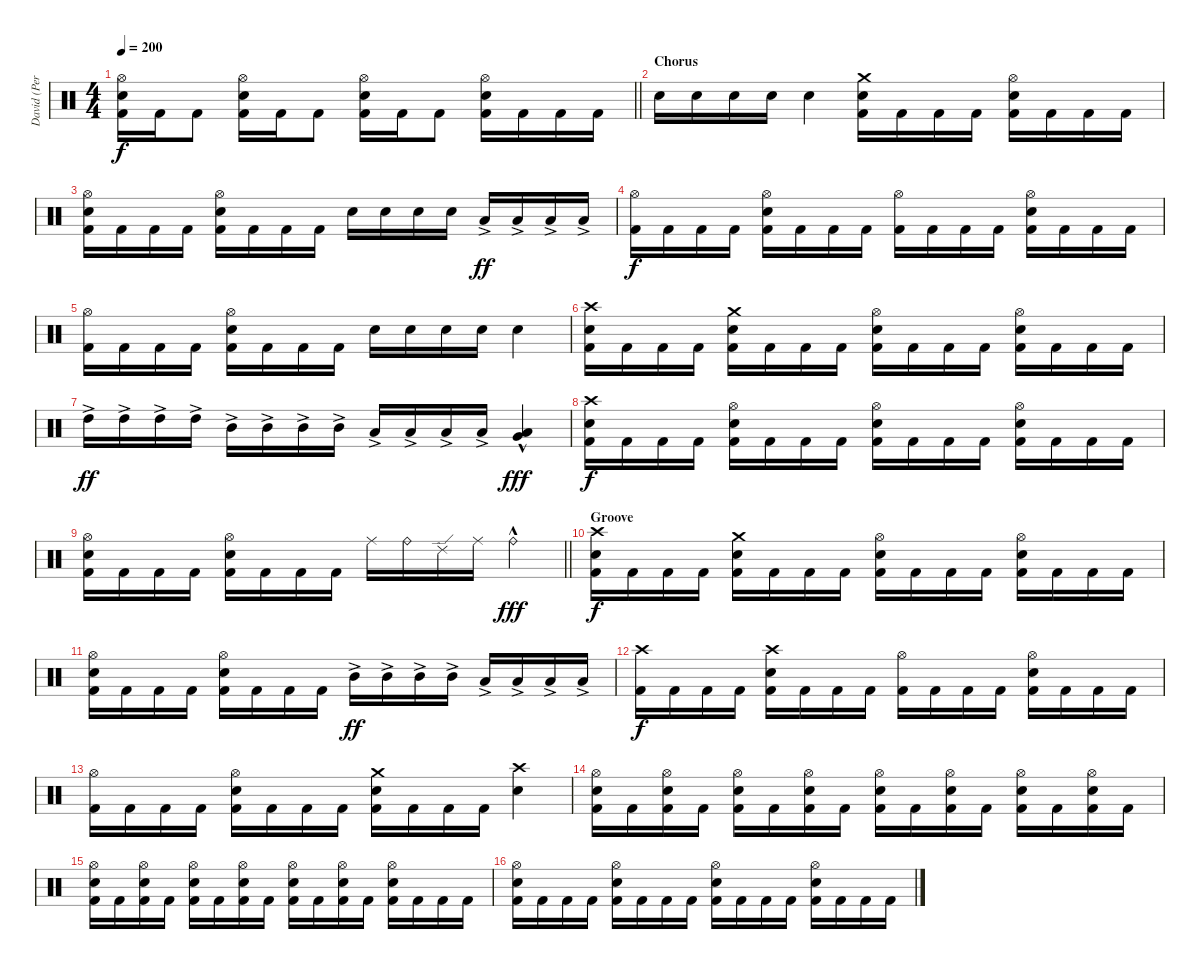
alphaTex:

\track ("David (Percussion)" "David (Per") {instrument percussion}
\staff {score}
\articulation defaults
\ts (4 4)
\tempo 200
\clef neutral
\barLineRight lightlight
\ks c
("Hi-Hat (open)" "Electric Snare (hit)" "Kick (hit) 2").16{dy f} "Kick (hit) 2".16 "Kick (hit) 2".8 ("Hi-Hat (open)" "Electric Snare (hit)" "Kick (hit) 2").16 "Kick (hit) 2".16 "Kick (hit) 2".8 ("Hi-Hat (open)" "Electric Snare (hit)" "Kick (hit) 2").16 "Kick (hit) 2".16 "Kick (hit) 2".8 ("Hi-Hat (open)" "Electric Snare (hit)" "Kick (hit) 2").16 "Kick (hit) 2".16 "Kick (hit) 2".16 "Kick (hit) 2".16 |
\section ("" "Chorus")
"Electric Snare (hit)".16 "Electric Snare (hit)".16 "Electric Snare (hit)".16 "Electric Snare (hit)".16 "Electric Snare (hit)".4 ("Crash medium (hit)" "Electric Snare (hit)" "Kick (hit) 2").16 "Kick (hit) 2".16 "Kick (hit) 2".16 "Kick (hit) 2".16 ("Hi-Hat (open)" "Electric Snare (hit)" "Kick (hit) 2").16 "Kick (hit) 2".16 "Kick (hit) 2".16 "Kick (hit) 2".16 |
("Hi-Hat (open)" "Electric Snare (hit)" "Kick (hit) 2").16 "Kick (hit) 2".16 "Kick (hit) 2".16 "Kick (hit) 2".16 ("Hi-Hat (open)" "Electric Snare (hit)" "Kick (hit) 2").16 "Kick (hit) 2".16 "Kick (hit) 2".16 "Kick (hit) 2".16 "Electric Snare (hit)".16 "Electric Snare (hit)".16 "Electric Snare (hit)".16 "Electric Snare (hit)".16 "Low Tom (hit)"{ac}.16{dy ff} "Low Tom (hit)"{ac}.16 "Low Tom (hit)"{ac}.16 "Low Tom (hit)"{ac}.16 |
("Hi-Hat (open)" "Kick (hit) 2").16{dy f} "Kick (hit) 2".16 "Kick (hit) 2".16 "Kick (hit) 2".16 ("Hi-Hat (open)" "Electric Snare (hit)" "Kick (hit) 2").16 "Kick (hit) 2".16 "Kick (hit) 2".16 "Kick (hit) 2".16 ("Hi-Hat (open)" "Kick (hit) 2").16 "Kick (hit) 2".16 "Kick (hit) 2".16 "Kick (hit) 2".16 ("Hi-Hat (open)" "Electric Snare (hit)" "Kick (hit) 2").16 "Kick (hit) 2".16 "Kick (hit) 2".16 "Kick (hit) 2".16 |
("Hi-Hat (open)" "Kick (hit) 2").16 "Kick (hit) 2".16 "Kick (hit) 2".16 "Kick (hit) 2".16 ("Hi-Hat (open)" "Electric Snare (hit)" "Kick (hit) 2").16 "Kick (hit) 2".16 "Kick (hit) 2".16 "Kick (hit) 2".16 "Electric Snare (hit)".16 "Electric Snare (hit)".16 "Electric Snare (hit)".16 "Electric Snare (hit)".16 "Electric Snare (hit)".4 |
("Crash high (hit)" "Electric Snare (hit)" "Kick (hit) 2").16 "Kick (hit) 2".16 "Kick (hit) 2".16 "Kick (hit) 2".16 ("Crash medium (hit)" "Electric Snare (hit)" "Kick (hit) 2").16 "Kick (hit) 2".16 "Kick (hit) 2".16 "Kick (hit) 2".16 ("Hi-Hat (open)" "Electric Snare (hit)" "Kick (hit) 2").16 "Kick (hit) 2".16 "Kick (hit) 2".16 "Kick (hit) 2".16 ("Hi-Hat (open)" "Electric Snare (hit)" "Kick (hit) 2").16 "Kick (hit) 2".16 "Kick (hit) 2".16 "Kick (hit) 2".16 |
"High Tom (hit)"{ac}.16{dy ff} "High Tom (hit)"{ac}.16 "High Tom (hit)"{ac}.16 "High Tom (hit)"{ac}.16 "Mid Tom (hit)"{ac}.16 "Mid Tom (hit)"{ac}.16 "Mid Tom (hit)"{ac}.16 "Mid Tom (hit)"{ac}.16 "Low Tom (hit)"{ac}.16 "Low Tom (hit)"{ac}.16 "Low Tom (hit)"{ac}.16 "Low Tom (hit)"{ac}.16 ("Very Low Tom (hit)" "Low Floor Tom (hit)"{hac}).4{dy fff} |
("Crash high (hit)" "Electric Snare (hit)" "Kick (hit) 2").16{dy f} "Kick (hit) 2".16 "Kick (hit) 2".16 "Kick (hit) 2".16 ("Hi-Hat (open)" "Electric Snare (hit)" "Kick (hit) 2").16 "Kick (hit) 2".16 "Kick (hit) 2".16 "Kick (hit) 2".16 ("Hi-Hat (open)" "Electric Snare (hit)" "Kick (hit) 2").16 "Kick (hit) 2".16 "Kick (hit) 2".16 "Kick (hit) 2".16 ("Hi-Hat (open)" "Electric Snare (hit)" "Kick (hit) 2").16 "Kick (hit) 2".16 "Kick (hit) 2".16 "Kick (hit) 2".16 |
\barLineRight lightlight
("Hi-Hat (open)" "Electric Snare (hit)" "Kick (hit) 2").16 "Kick (hit) 2".16 "Kick (hit) 2".16 "Kick (hit) 2".16 ("Hi-Hat (open)" "Electric Snare (hit)" "Kick (hit) 2").16 "Kick (hit) 2".16 "Kick (hit) 2".16 "Kick (hit) 2".16 "Ride (middle)".16 "Ride (bell)".16 "Ride (edge) 2".16 "Ride (middle)".16 "Ride (bell)"{hac}.4{dy fff} |
\section ("" "Groove")
("Crash high (hit)" "Electric Snare (hit)" "Kick (hit) 2").16{dy f} "Kick (hit) 2".16 "Kick (hit) 2".16 "Kick (hit) 2".16 ("Crash medium (hit)" "Electric Snare (hit)" "Kick (hit) 2").16 "Kick (hit) 2".16 "Kick (hit) 2".16 "Kick (hit) 2".16 ("Hi-Hat (open)" "Electric Snare (hit)" "Kick (hit) 2").16 "Kick (hit) 2".16 "Kick (hit) 2".16 "Kick (hit) 2".16 ("Hi-Hat (open)" "Electric Snare (hit)" "Kick (hit) 2").16 "Kick (hit) 2".16 "Kick (hit) 2".16 "Kick (hit) 2".16 |
("Hi-Hat (open)" "Electric Snare (hit)" "Kick (hit) 2").16 "Kick (hit) 2".16 "Kick (hit) 2".16 "Kick (hit) 2".16 ("Hi-Hat (open)" "Electric Snare (hit)" "Kick (hit) 2").16 "Kick (hit) 2".16 "Kick (hit) 2".16 "Kick (hit) 2".16 "Mid Tom (hit)"{ac}.16{dy ff} "Mid Tom (hit)"{ac}.16 "Mid Tom (hit)"{ac}.16 "Mid Tom (hit)"{ac}.16 "Low Tom (hit)"{ac}.16 "Low Tom (hit)"{ac}.16 "Low Tom (hit)"{ac}.16 "Low Tom (hit)"{ac}.16 |
("Crash high (hit)" "Kick (hit) 2").16{dy f} "Kick (hit) 2".16 "Kick (hit) 2".16 "Kick (hit) 2".16 ("Crash high (hit)" "Electric Snare (hit)" "Kick (hit) 2").16 "Kick (hit) 2".16 "Kick (hit) 2".16 "Kick (hit) 2".16 ("Hi-Hat (open)" "Kick (hit) 2").16 "Kick (hit) 2".16 "Kick (hit) 2".16 "Kick (hit) 2".16 ("Hi-Hat (open)" "Electric Snare (hit)" "Kick (hit) 2").16 "Kick (hit) 2".16 "Kick (hit) 2".16 "Kick (hit) 2".16 |
("Hi-Hat (open)" "Kick (hit) 2").16 "Kick (hit) 2".16 "Kick (hit) 2".16 "Kick (hit) 2".16 ("Hi-Hat (open)" "Electric Snare (hit)" "Kick (hit) 2").16 "Kick (hit) 2".16 "Kick (hit) 2".16 "Kick (hit) 2".16 ("Crash medium (hit)" "Electric Snare (hit)" "Kick (hit) 2").16 "Kick (hit) 2".16 "Kick (hit) 2".16 "Kick (hit) 2".16 ("Crash high (hit)" "Electric Snare (hit)").4 |
("Hi-Hat (open)" "Electric Snare (hit)" "Kick (hit) 2").16 "Kick (hit) 2".16 ("Hi-Hat (open)" "Electric Snare (hit)" "Kick (hit) 2").16 "Kick (hit) 2".16 ("Hi-Hat (open)" "Electric Snare (hit)" "Kick (hit) 2").16 "Kick (hit) 2".16 ("Hi-Hat (open)" "Electric Snare (hit)" "Kick (hit) 2").16 "Kick (hit) 2".16 ("Hi-Hat (open)" "Electric Snare (hit)" "Kick (hit) 2").16 "Kick (hit) 2".16 ("Hi-Hat (open)" "Electric Snare (hit)" "Kick (hit) 2").16 "Kick (hit) 2".16 ("Hi-Hat (open)" "Electric Snare (hit)" "Kick (hit) 2").16 "Kick (hit) 2".16 ("Hi-Hat (open)" "Electric Snare (hit)" "Kick (hit) 2").16 "Kick (hit) 2".16 |
("Hi-Hat (open)" "Electric Snare (hit)" "Kick (hit) 2").16 "Kick (hit) 2".16 ("Hi-Hat (open)" "Electric Snare (hit)" "Kick (hit) 2").16 "Kick (hit) 2".16 ("Hi-Hat (open)" "Electric Snare (hit)" "Kick (hit) 2").16 "Kick (hit) 2".16 ("Hi-Hat (open)" "Electric Snare (hit)" "Kick (hit) 2").16 "Kick (hit) 2".16 ("Hi-Hat (open)" "Electric Snare (hit)" "Kick (hit) 2").16 "Kick (hit) 2".16 ("Hi-Hat (open)" "Electric Snare (hit)" "Kick (hit) 2").16 "Kick (hit) 2".16 ("Hi-Hat (open)" "Electric Snare (hit)" "Kick (hit) 2").16 "Kick (hit) 2".16 "Kick (hit) 2".16 "Kick (hit) 2".16 |
("Hi-Hat (open)" "Electric Snare (hit)" "Kick (hit) 2").16 "Kick (hit) 2".16 "Kick (hit) 2".16 "Kick (hit) 2".16 ("Hi-Hat (open)" "Electric Snare (hit)" "Kick (hit) 2").16 "Kick (hit) 2".16 "Kick (hit) 2".16 "Kick (hit) 2".16 ("Hi-Hat (open)" "Electric Snare (hit)" "Kick (hit) 2").16 "Kick (hit) 2".16 "Kick (hit) 2".16 "Kick (hit) 2".16 ("Hi-Hat (open)" "Electric Snare (hit)" "Kick (hit) 2").16 "Kick (hit) 2".16 "Kick (hit) 2".16 "Kick (hit) 2".16
